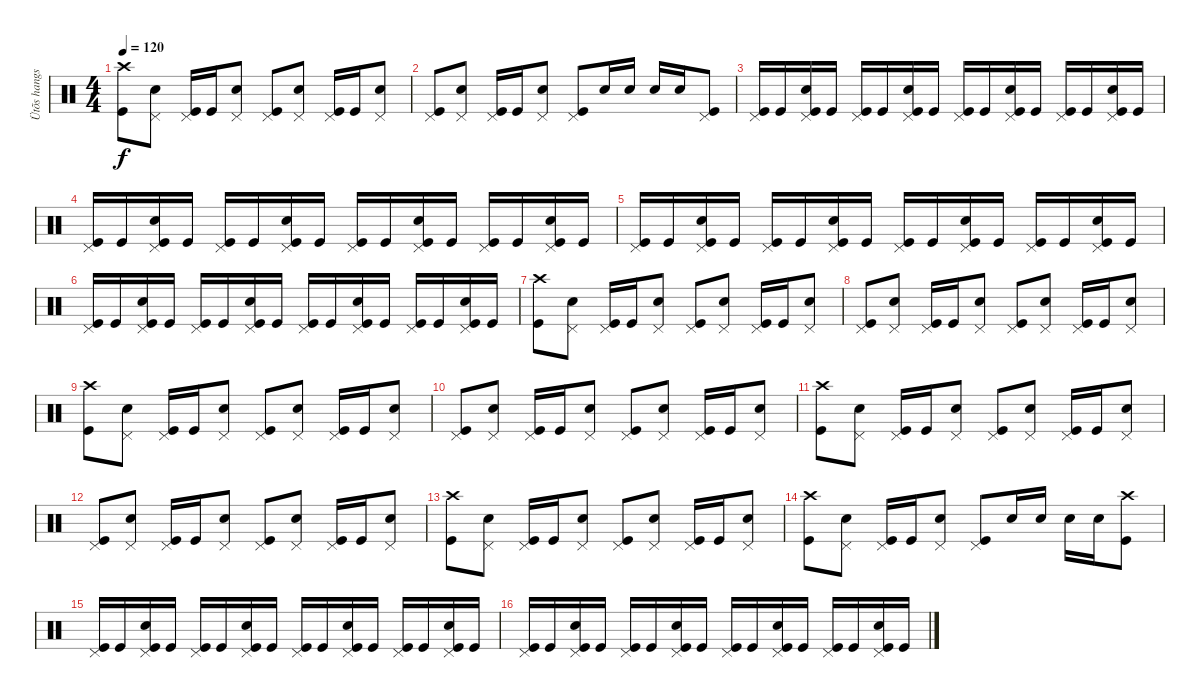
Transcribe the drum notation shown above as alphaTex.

\track ("Ütõs hangszer" "Ütõs hangs") {instrument percussion}
\staff {score}
\articulation defaults
\ts (4 4)
\tempo 120
\clef neutral
\ks c
("Crash high (hit)" "Kick (hit)").8{dy f} ("Pedal Hi-Hat (hit)" "Electric Snare (hit)").8 ("Pedal Hi-Hat (hit)" "Kick (hit)").16 "Kick (hit)".16 ("Pedal Hi-Hat (hit)" "Electric Snare (hit)").8 ("Pedal Hi-Hat (hit)" "Kick (hit)").8 ("Pedal Hi-Hat (hit)" "Electric Snare (hit)").8 ("Pedal Hi-Hat (hit)" "Kick (hit)").16 "Kick (hit)".16 ("Pedal Hi-Hat (hit)" "Electric Snare (hit)").8 |
("Pedal Hi-Hat (hit)" "Kick (hit)").8 ("Pedal Hi-Hat (hit)" "Electric Snare (hit)").8 ("Pedal Hi-Hat (hit)" "Kick (hit)").16 "Kick (hit)".16 ("Pedal Hi-Hat (hit)" "Electric Snare (hit)").8 ("Pedal Hi-Hat (hit)" "Kick (hit)").8 "Electric Snare (hit)".16 "Electric Snare (hit)".16 "Electric Snare (hit)".16 "Electric Snare (hit)".16 ("Pedal Hi-Hat (hit)" "Kick (hit)").8 |
("Pedal Hi-Hat (hit)" "Kick (hit)").16 "Kick (hit)".16 ("Pedal Hi-Hat (hit)" "Electric Snare (hit)" "Kick (hit)").16 "Kick (hit)".16 ("Pedal Hi-Hat (hit)" "Kick (hit)").16 "Kick (hit)".16 ("Pedal Hi-Hat (hit)" "Electric Snare (hit)" "Kick (hit)").16 "Kick (hit)".16 ("Pedal Hi-Hat (hit)" "Kick (hit)").16 "Kick (hit)".16 ("Pedal Hi-Hat (hit)" "Electric Snare (hit)" "Kick (hit)").16 "Kick (hit)".16 ("Pedal Hi-Hat (hit)" "Kick (hit)").16 "Kick (hit)".16 ("Pedal Hi-Hat (hit)" "Electric Snare (hit)" "Kick (hit)").16 "Kick (hit)".16 |
("Pedal Hi-Hat (hit)" "Kick (hit)").16 "Kick (hit)".16 ("Pedal Hi-Hat (hit)" "Electric Snare (hit)" "Kick (hit)").16 "Kick (hit)".16 ("Pedal Hi-Hat (hit)" "Kick (hit)").16 "Kick (hit)".16 ("Pedal Hi-Hat (hit)" "Electric Snare (hit)" "Kick (hit)").16 "Kick (hit)".16 ("Pedal Hi-Hat (hit)" "Kick (hit)").16 "Kick (hit)".16 ("Pedal Hi-Hat (hit)" "Electric Snare (hit)" "Kick (hit)").16 "Kick (hit)".16 ("Pedal Hi-Hat (hit)" "Kick (hit)").16 "Kick (hit)".16 ("Pedal Hi-Hat (hit)" "Electric Snare (hit)" "Kick (hit)").16 "Kick (hit)".16 |
("Pedal Hi-Hat (hit)" "Kick (hit)").16 "Kick (hit)".16 ("Pedal Hi-Hat (hit)" "Electric Snare (hit)" "Kick (hit)").16 "Kick (hit)".16 ("Pedal Hi-Hat (hit)" "Kick (hit)").16 "Kick (hit)".16 ("Pedal Hi-Hat (hit)" "Electric Snare (hit)" "Kick (hit)").16 "Kick (hit)".16 ("Pedal Hi-Hat (hit)" "Kick (hit)").16 "Kick (hit)".16 ("Pedal Hi-Hat (hit)" "Electric Snare (hit)" "Kick (hit)").16 "Kick (hit)".16 ("Pedal Hi-Hat (hit)" "Kick (hit)").16 "Kick (hit)".16 ("Pedal Hi-Hat (hit)" "Electric Snare (hit)" "Kick (hit)").16 "Kick (hit)".16 |
("Pedal Hi-Hat (hit)" "Kick (hit)").16 "Kick (hit)".16 ("Pedal Hi-Hat (hit)" "Electric Snare (hit)" "Kick (hit)").16 "Kick (hit)".16 ("Pedal Hi-Hat (hit)" "Kick (hit)").16 "Kick (hit)".16 ("Pedal Hi-Hat (hit)" "Electric Snare (hit)" "Kick (hit)").16 "Kick (hit)".16 ("Pedal Hi-Hat (hit)" "Kick (hit)").16 "Kick (hit)".16 ("Pedal Hi-Hat (hit)" "Electric Snare (hit)" "Kick (hit)").16 "Kick (hit)".16 ("Pedal Hi-Hat (hit)" "Kick (hit)").16 "Kick (hit)".16 ("Pedal Hi-Hat (hit)" "Electric Snare (hit)" "Kick (hit)").16 "Kick (hit)".16 |
("Crash high (hit)" "Kick (hit)").8 ("Pedal Hi-Hat (hit)" "Electric Snare (hit)").8 ("Pedal Hi-Hat (hit)" "Kick (hit)").16 "Kick (hit)".16 ("Pedal Hi-Hat (hit)" "Electric Snare (hit)").8 ("Pedal Hi-Hat (hit)" "Kick (hit)").8 ("Pedal Hi-Hat (hit)" "Electric Snare (hit)").8 ("Pedal Hi-Hat (hit)" "Kick (hit)").16 "Kick (hit)".16 ("Pedal Hi-Hat (hit)" "Electric Snare (hit)").8 |
("Pedal Hi-Hat (hit)" "Kick (hit)").8 ("Pedal Hi-Hat (hit)" "Electric Snare (hit)").8 ("Pedal Hi-Hat (hit)" "Kick (hit)").16 "Kick (hit)".16 ("Pedal Hi-Hat (hit)" "Electric Snare (hit)").8 ("Pedal Hi-Hat (hit)" "Kick (hit)").8 ("Pedal Hi-Hat (hit)" "Electric Snare (hit)").8 ("Pedal Hi-Hat (hit)" "Kick (hit)").16 "Kick (hit)".16 ("Pedal Hi-Hat (hit)" "Electric Snare (hit)").8 |
("Crash high (hit)" "Kick (hit)").8 ("Pedal Hi-Hat (hit)" "Electric Snare (hit)").8 ("Pedal Hi-Hat (hit)" "Kick (hit)").16 "Kick (hit)".16 ("Pedal Hi-Hat (hit)" "Electric Snare (hit)").8 ("Pedal Hi-Hat (hit)" "Kick (hit)").8 ("Pedal Hi-Hat (hit)" "Electric Snare (hit)").8 ("Pedal Hi-Hat (hit)" "Kick (hit)").16 "Kick (hit)".16 ("Pedal Hi-Hat (hit)" "Electric Snare (hit)").8 |
("Pedal Hi-Hat (hit)" "Kick (hit)").8 ("Pedal Hi-Hat (hit)" "Electric Snare (hit)").8 ("Pedal Hi-Hat (hit)" "Kick (hit)").16 "Kick (hit)".16 ("Pedal Hi-Hat (hit)" "Electric Snare (hit)").8 ("Pedal Hi-Hat (hit)" "Kick (hit)").8 ("Pedal Hi-Hat (hit)" "Electric Snare (hit)").8 ("Pedal Hi-Hat (hit)" "Kick (hit)").16 "Kick (hit)".16 ("Pedal Hi-Hat (hit)" "Electric Snare (hit)").8 |
("Crash high (hit)" "Kick (hit)").8 ("Pedal Hi-Hat (hit)" "Electric Snare (hit)").8 ("Pedal Hi-Hat (hit)" "Kick (hit)").16 "Kick (hit)".16 ("Pedal Hi-Hat (hit)" "Electric Snare (hit)").8 ("Pedal Hi-Hat (hit)" "Kick (hit)").8 ("Pedal Hi-Hat (hit)" "Electric Snare (hit)").8 ("Pedal Hi-Hat (hit)" "Kick (hit)").16 "Kick (hit)".16 ("Pedal Hi-Hat (hit)" "Electric Snare (hit)").8 |
("Pedal Hi-Hat (hit)" "Kick (hit)").8 ("Pedal Hi-Hat (hit)" "Electric Snare (hit)").8 ("Pedal Hi-Hat (hit)" "Kick (hit)").16 "Kick (hit)".16 ("Pedal Hi-Hat (hit)" "Electric Snare (hit)").8 ("Pedal Hi-Hat (hit)" "Kick (hit)").8 ("Pedal Hi-Hat (hit)" "Electric Snare (hit)").8 ("Pedal Hi-Hat (hit)" "Kick (hit)").16 "Kick (hit)".16 ("Pedal Hi-Hat (hit)" "Electric Snare (hit)").8 |
("Crash high (hit)" "Kick (hit)").8 ("Pedal Hi-Hat (hit)" "Electric Snare (hit)").8 ("Pedal Hi-Hat (hit)" "Kick (hit)").16 "Kick (hit)".16 ("Pedal Hi-Hat (hit)" "Electric Snare (hit)").8 ("Pedal Hi-Hat (hit)" "Kick (hit)").8 ("Pedal Hi-Hat (hit)" "Electric Snare (hit)").8 ("Pedal Hi-Hat (hit)" "Kick (hit)").16 "Kick (hit)".16 ("Pedal Hi-Hat (hit)" "Electric Snare (hit)").8 |
("Crash high (hit)" "Kick (hit)").8 ("Pedal Hi-Hat (hit)" "Electric Snare (hit)").8 ("Pedal Hi-Hat (hit)" "Kick (hit)").16 "Kick (hit)".16 ("Pedal Hi-Hat (hit)" "Electric Snare (hit)").8 ("Pedal Hi-Hat (hit)" "Kick (hit)").8 "Electric Snare (hit)".16 "Electric Snare (hit)".16 "Electric Snare (hit)".16 "Electric Snare (hit)".16 ("Crash high (hit)" "Kick (hit)").8 |
("Pedal Hi-Hat (hit)" "Kick (hit)").16 "Kick (hit)".16 ("Pedal Hi-Hat (hit)" "Electric Snare (hit)" "Kick (hit)").16 "Kick (hit)".16 ("Pedal Hi-Hat (hit)" "Kick (hit)").16 "Kick (hit)".16 ("Pedal Hi-Hat (hit)" "Electric Snare (hit)" "Kick (hit)").16 "Kick (hit)".16 ("Pedal Hi-Hat (hit)" "Kick (hit)").16 "Kick (hit)".16 ("Pedal Hi-Hat (hit)" "Electric Snare (hit)" "Kick (hit)").16 "Kick (hit)".16 ("Pedal Hi-Hat (hit)" "Kick (hit)").16 "Kick (hit)".16 ("Pedal Hi-Hat (hit)" "Electric Snare (hit)" "Kick (hit)").16 "Kick (hit)".16 |
("Pedal Hi-Hat (hit)" "Kick (hit)").16 "Kick (hit)".16 ("Pedal Hi-Hat (hit)" "Electric Snare (hit)" "Kick (hit)").16 "Kick (hit)".16 ("Pedal Hi-Hat (hit)" "Kick (hit)").16 "Kick (hit)".16 ("Pedal Hi-Hat (hit)" "Electric Snare (hit)" "Kick (hit)").16 "Kick (hit)".16 ("Pedal Hi-Hat (hit)" "Kick (hit)").16 "Kick (hit)".16 ("Pedal Hi-Hat (hit)" "Electric Snare (hit)" "Kick (hit)").16 "Kick (hit)".16 ("Pedal Hi-Hat (hit)" "Kick (hit)").16 "Kick (hit)".16 ("Pedal Hi-Hat (hit)" "Electric Snare (hit)" "Kick (hit)").16 "Kick (hit)".16
